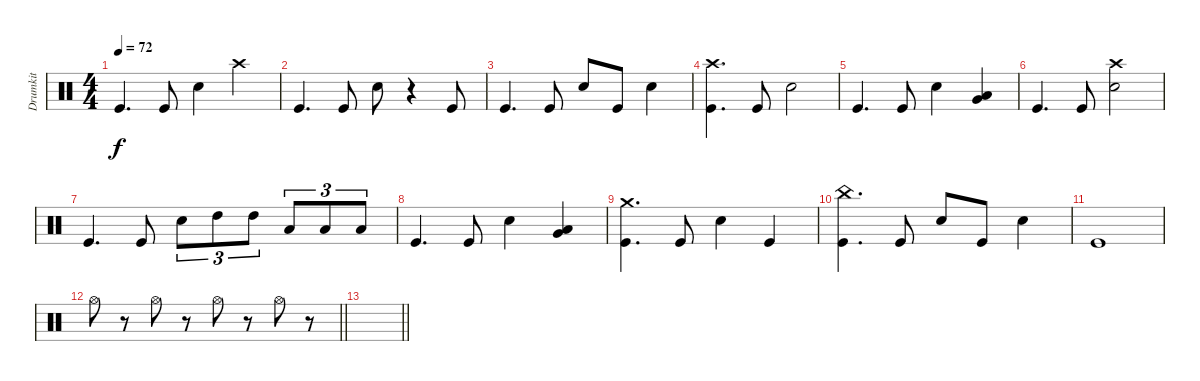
\track ("Drumkit" "Drumkit") {instrument percussion}
\staff {score}
\articulation defaults
\ts (4 4)
\tempo 72
\clef neutral
\ks c "Kick (hit)".4{d dy f} "Kick (hit)".8 "Snare (hit) 2".4 "Crash high (hit)".4
|
"Kick (hit)".4{d} "Kick (hit)".8 "Snare (hit) 2".8 r.4 "Kick (hit)".8 |
"Kick (hit)".4{d} "Kick (hit)".8 "Snare (hit) 2".8 "Kick (hit)".8 "Snare (hit) 2".4 |
("Kick (hit)" "Crash high (hit)").4{d} "Kick (hit)".8 "Snare (hit) 2".2 |
"Kick (hit)".4{d} "Kick (hit)".8 "Snare (hit) 2".4 ("Very Low Tom (hit)" "Low Floor Tom (hit)").4 |
"Kick (hit)".4{d} "Kick (hit)".8 ("Snare (hit) 2" "Crash high (hit)").2 |
"Kick (hit)".4{d} "Kick (hit)".8 "Snare (hit) 2".8{tu (3 2)} "High Tom (hit)".8{tu (3 2)} "High Tom (hit)".8{tu (3 2)} "Low Tom (hit)".8{tu (3 2)} "Low Tom (hit)".8{tu (3 2)} "Low Floor Tom (hit)".8{tu (3 2)} |
"Kick (hit)".4{d} "Kick (hit)".8 "Snare (hit) 2".4 ("Low Floor Tom (hit)" "Very Low Tom (hit)").4 |
("Kick (hit)" "Crash medium (hit)").4{d} "Kick (hit)".8 "Snare (hit) 2".4 "Kick (hit)".4 |
("Kick (hit)" "China (hit)").4{d} "Kick (hit)".8 "Snare (hit) 2".8 "Kick (hit)".8 "Snare (hit) 2".4 |
"Kick (hit)".1 |
\barLineRight lightlight "Hi-Hat (open)".8
r.8 "Hi-Hat (open)".8 r.8 "Hi-Hat (open)".8 r.8 "Hi-Hat (open)".8 r.8 |
\barLineRight lightlight
